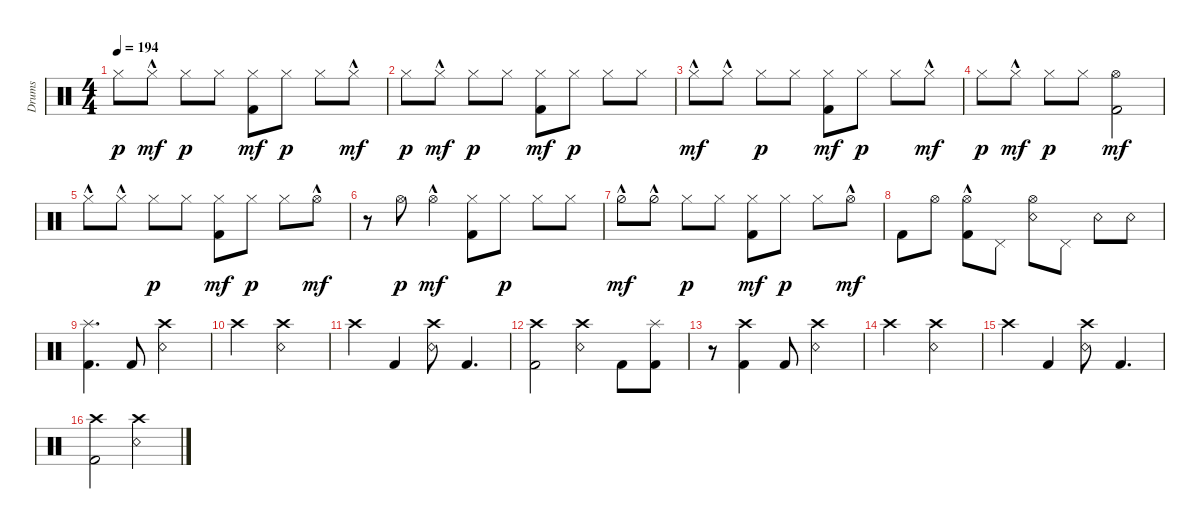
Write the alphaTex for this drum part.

\track ("Drums" "Drums") {instrument percussion}
\staff {score}
\articulation defaults
\ts (4 4)
\tempo 194
\clef neutral
\ks c "Hi-Hat (closed)".8{dy p} "Hi-Hat (closed)"{hac}.8{dy mf} "Hi-Hat (closed)".8{dy p} "Hi-Hat (closed)".8
("Hi-Hat (closed)" "Kick (hit) 2").8{dy mf} "Hi-Hat (closed)".8{dy p} "Hi-Hat (closed)".8 "Hi-Hat (closed)"{hac}.8{dy mf} |
"Hi-Hat (closed)".8{dy p} "Hi-Hat (closed)"{hac}.8{dy mf} "Hi-Hat (closed)".8{dy p} "Hi-Hat (closed)".8 ("Hi-Hat (closed)" "Kick (hit) 2").8{dy mf} "Hi-Hat (closed)".8{dy p} "Hi-Hat (closed)".8 "Hi-Hat (closed)".8 |
"Hi-Hat (closed)"{hac}.8{dy mf} "Hi-Hat (closed)"{hac}.8 "Hi-Hat (closed)".8{dy p} "Hi-Hat (closed)".8 ("Hi-Hat (closed)" "Kick (hit) 2").8{dy mf} "Hi-Hat (closed)".8{dy p} "Hi-Hat (closed)".8 "Hi-Hat (closed)"{hac}.8{dy mf} |
"Hi-Hat (closed)".8{dy p} "Hi-Hat (closed)"{hac}.8{dy mf} "Hi-Hat (closed)".8{dy p} "Hi-Hat (closed)".8 ("Hi-Hat (open)" "Kick (hit) 2").2{dy mf} |
"Hi-Hat (closed)"{hac}.8 "Hi-Hat (closed)"{hac}.8 "Hi-Hat (closed)".8{dy p} "Hi-Hat (closed)".8 ("Hi-Hat (closed)" "Kick (hit) 2").8{dy mf} "Hi-Hat (closed)".8{dy p} "Hi-Hat (closed)".8 "Hi-Hat (open)"{hac}.8{dy mf} |
r.8 "Hi-Hat (open)".8{dy p} "Hi-Hat (open)"{hac}.4{dy mf} ("Hi-Hat (closed)" "Kick (hit) 2").8 "Hi-Hat (closed)".8{dy p} "Hi-Hat (closed)".8 "Hi-Hat (closed)".8 |
"Hi-Hat (half)"{hac}.8{dy mf} "Hi-Hat (half)"{hac}.8 "Hi-Hat (closed)".8{dy p} "Hi-Hat (closed)".8 ("Hi-Hat (closed)" "Kick (hit) 2").8{dy mf} "Hi-Hat (closed)".8{dy p} "Hi-Hat (closed)".8 "Hi-Hat (open)"{hac}.8{dy mf} |
"Kick (hit) 2".8 "Hi-Hat (open)".8 ("Hi-Hat (open)"{hac} "Kick (hit) 2").8 "Pedal Hi-Hat (hit)".8 ("Hi-Hat (open)" "Snare (rim shot)").8 "Pedal Hi-Hat (hit)".8 "Snare (rim shot)".8 "Snare (rim shot)".8 |
("Splash (hit)" "Kick (hit) 2").4{d} "Kick (hit) 2".8 ("Crash high (hit)" "Snare (rim shot)").2 |
"Crash high (hit)".2 ("Crash high (hit)" "Snare (rim shot)").2 |
"Crash high (hit)".4 "Kick (hit) 2".4 ("Crash high (hit)" "Snare (rim shot)").8 "Kick (hit) 2".4{d} |
("Crash high (hit)" "Kick (hit) 2").2 ("Crash high (hit)" "Snare (rim shot)").4 "Kick (hit) 2".8 ("Splash (hit)" "Kick (hit) 2").8 |
r.8 ("Crash high (hit)" "Kick (hit) 2").4 "Kick (hit) 2".8 ("Crash high (hit)" "Snare (rim shot)").2 |
"Crash high (hit)".2 ("Crash high (hit)" "Snare (rim shot)").2 |
"Crash high (hit)".4 "Kick (hit) 2".4 ("Crash high (hit)" "Snare (rim shot)").8 "Kick (hit) 2".4{d} |
("Crash high (hit)" "Kick (hit) 2").2 ("Crash high (hit)" "Snare (rim shot)").2
